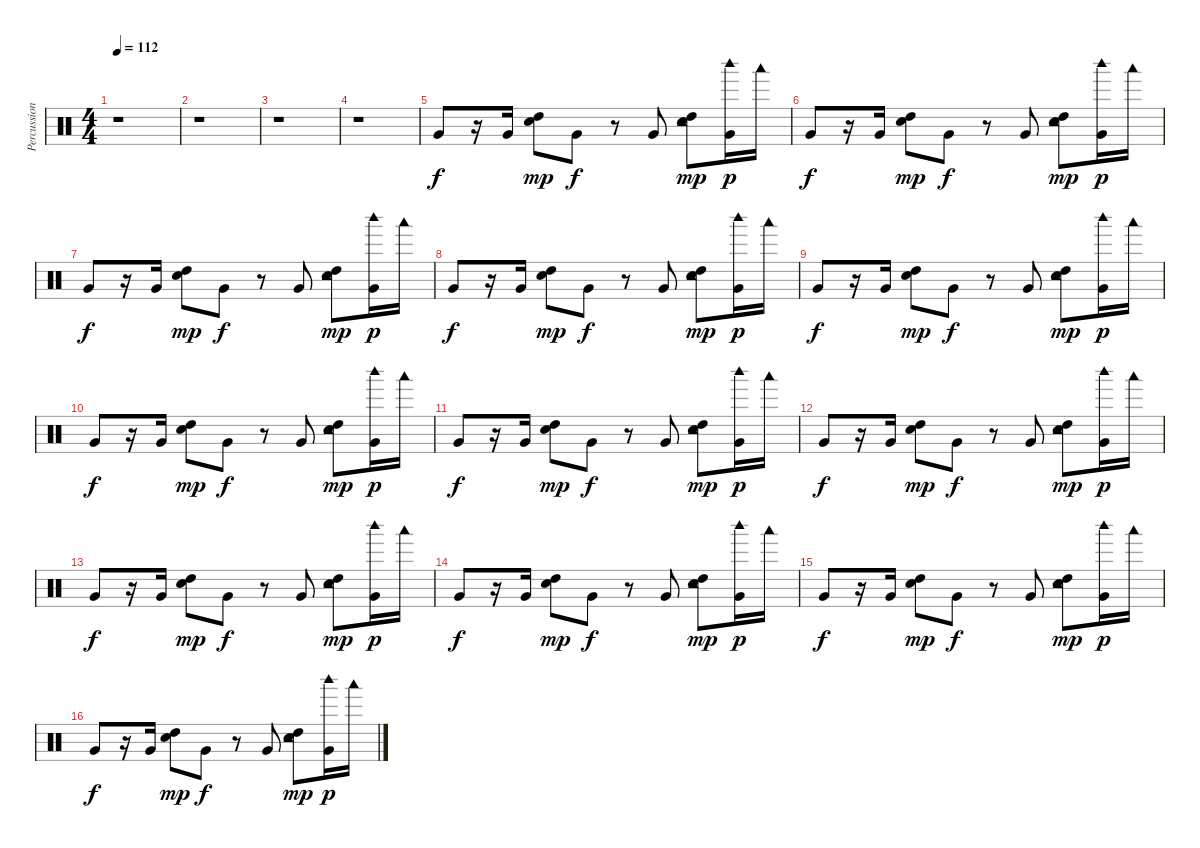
\track ("Percussion" "Percussion") {instrument percussion}
\staff {score}
\articulation defaults
\ts (4 4)
\tempo 112
\clef neutral
\ks c
r.1{dy f} |
r.1 |
r.1 |
r.1 |
"Very Low Tom (hit)".8 r.16 "Very Low Tom (hit)".16 ("Snare (hit) 2" "High Tom (hit)").8{dy mp} "Very Low Tom (hit)".8{dy f} r.8 "Very Low Tom (hit)".8 ("Tambourine (hit)" "Snare (hit) 2" "High Tom (hit)").8{dy mp} ("Woodblock high (hit)" "Very Low Tom (hit)").16{dy p} "Woodblock low (hit)".16 |
"Very Low Tom (hit)".8{dy f} r.16 "Very Low Tom (hit)".16 ("Snare (hit) 2" "High Tom (hit)").8{dy mp} "Very Low Tom (hit)".8{dy f} r.8 "Very Low Tom (hit)".8 ("Tambourine (hit)" "Snare (hit) 2" "High Tom (hit)").8{dy mp} ("Woodblock high (hit)" "Very Low Tom (hit)").16{dy p} "Woodblock low (hit)".16 |
"Very Low Tom (hit)".8{dy f} r.16 "Very Low Tom (hit)".16 ("Snare (hit) 2" "High Tom (hit)").8{dy mp} "Very Low Tom (hit)".8{dy f} r.8 "Very Low Tom (hit)".8 ("Tambourine (hit)" "Snare (hit) 2" "High Tom (hit)").8{dy mp} ("Woodblock high (hit)" "Very Low Tom (hit)").16{dy p} "Woodblock low (hit)".16 |
"Very Low Tom (hit)".8{dy f} r.16 "Very Low Tom (hit)".16 ("Snare (hit) 2" "High Tom (hit)").8{dy mp} "Very Low Tom (hit)".8{dy f} r.8 "Very Low Tom (hit)".8 ("Tambourine (hit)" "Snare (hit) 2" "High Tom (hit)").8{dy mp} ("Woodblock high (hit)" "Very Low Tom (hit)").16{dy p} "Woodblock low (hit)".16 |
"Very Low Tom (hit)".8{dy f} r.16 "Very Low Tom (hit)".16 ("Snare (hit) 2" "High Tom (hit)").8{dy mp} "Very Low Tom (hit)".8{dy f} r.8 "Very Low Tom (hit)".8 ("Tambourine (hit)" "Snare (hit) 2" "High Tom (hit)").8{dy mp} ("Woodblock high (hit)" "Very Low Tom (hit)").16{dy p} "Woodblock low (hit)".16 |
"Very Low Tom (hit)".8{dy f} r.16 "Very Low Tom (hit)".16 ("Snare (hit) 2" "High Tom (hit)").8{dy mp} "Very Low Tom (hit)".8{dy f} r.8 "Very Low Tom (hit)".8 ("Tambourine (hit)" "Snare (hit) 2" "High Tom (hit)").8{dy mp} ("Woodblock high (hit)" "Very Low Tom (hit)").16{dy p} "Woodblock low (hit)".16 |
"Very Low Tom (hit)".8{dy f} r.16 "Very Low Tom (hit)".16 ("Snare (hit) 2" "High Tom (hit)").8{dy mp} "Very Low Tom (hit)".8{dy f} r.8 "Very Low Tom (hit)".8 ("Tambourine (hit)" "Snare (hit) 2" "High Tom (hit)").8{dy mp} ("Woodblock high (hit)" "Very Low Tom (hit)").16{dy p} "Woodblock low (hit)".16 |
"Very Low Tom (hit)".8{dy f} r.16 "Very Low Tom (hit)".16 ("Snare (hit) 2" "High Tom (hit)").8{dy mp} "Very Low Tom (hit)".8{dy f} r.8 "Very Low Tom (hit)".8 ("Tambourine (hit)" "Snare (hit) 2" "High Tom (hit)").8{dy mp} ("Woodblock high (hit)" "Very Low Tom (hit)").16{dy p} "Woodblock low (hit)".16 |
"Very Low Tom (hit)".8{dy f} r.16 "Very Low Tom (hit)".16 ("Snare (hit) 2" "High Tom (hit)").8{dy mp} "Very Low Tom (hit)".8{dy f} r.8 "Very Low Tom (hit)".8 ("Tambourine (hit)" "Snare (hit) 2" "High Tom (hit)").8{dy mp} ("Woodblock high (hit)" "Very Low Tom (hit)").16{dy p} "Woodblock low (hit)".16 |
"Very Low Tom (hit)".8{dy f} r.16 "Very Low Tom (hit)".16 ("Snare (hit) 2" "High Tom (hit)").8{dy mp} "Very Low Tom (hit)".8{dy f} r.8 "Very Low Tom (hit)".8 ("Tambourine (hit)" "Snare (hit) 2" "High Tom (hit)").8{dy mp} ("Woodblock high (hit)" "Very Low Tom (hit)").16{dy p} "Woodblock low (hit)".16 |
"Very Low Tom (hit)".8{dy f} r.16 "Very Low Tom (hit)".16 ("Snare (hit) 2" "High Tom (hit)").8{dy mp} "Very Low Tom (hit)".8{dy f} r.8 "Very Low Tom (hit)".8 ("Tambourine (hit)" "Snare (hit) 2" "High Tom (hit)").8{dy mp} ("Woodblock high (hit)" "Very Low Tom (hit)").16{dy p} "Woodblock low (hit)".16 |
"Very Low Tom (hit)".8{dy f} r.16 "Very Low Tom (hit)".16 ("Snare (hit) 2" "High Tom (hit)").8{dy mp} "Very Low Tom (hit)".8{dy f} r.8 "Very Low Tom (hit)".8 ("Tambourine (hit)" "Snare (hit) 2" "High Tom (hit)").8{dy mp} ("Woodblock high (hit)" "Very Low Tom (hit)").16{dy p} "Woodblock low (hit)".16
